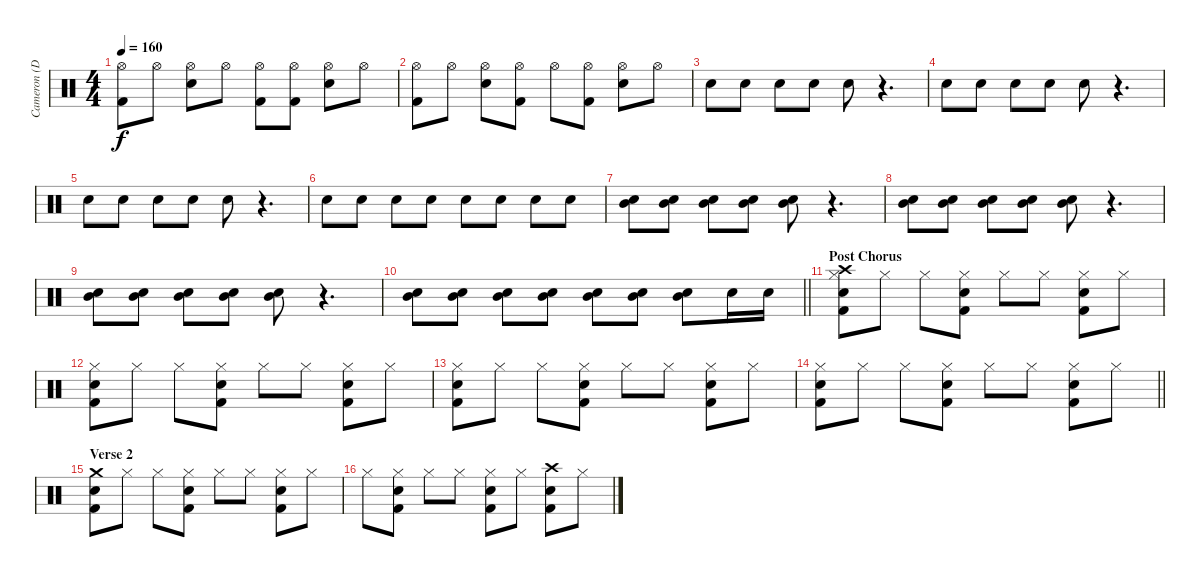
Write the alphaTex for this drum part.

\track ("Cameron (Drums)" "Cameron (D") {instrument percussion}
\staff {score}
\articulation defaults
\ts (4 4)
\tempo 160
\clef neutral
\ks c
("Hi-Hat (open)" "Kick (hit) 2").8{dy f} "Hi-Hat (open)".8 ("Hi-Hat (open)" "Snare (hit) 2").8 "Hi-Hat (open)".8 ("Hi-Hat (open)" "Kick (hit) 2").8 ("Hi-Hat (open)" "Kick (hit) 2").8 ("Hi-Hat (open)" "Snare (hit) 2").8 "Hi-Hat (open)".8 |
("Hi-Hat (open)" "Kick (hit) 2").8 "Hi-Hat (open)".8 ("Hi-Hat (open)" "Snare (hit) 2").8 ("Hi-Hat (open)" "Kick (hit) 2").8 "Hi-Hat (open)".8 ("Hi-Hat (open)" "Kick (hit) 2").8 ("Hi-Hat (open)" "Snare (hit) 2").8 "Hi-Hat (open)".8 |
"Snare (hit) 2".8 "Snare (hit) 2".8 "Snare (hit) 2".8 "Snare (hit) 2".8 "Snare (hit) 2".8 r.4{d} |
"Snare (hit) 2".8 "Snare (hit) 2".8 "Snare (hit) 2".8 "Snare (hit) 2".8 "Snare (hit) 2".8 r.4{d} |
"Snare (hit) 2".8 "Snare (hit) 2".8 "Snare (hit) 2".8 "Snare (hit) 2".8 "Snare (hit) 2".8 r.4{d} |
"Snare (hit) 2".8 "Snare (hit) 2".8 "Snare (hit) 2".8 "Snare (hit) 2".8 "Snare (hit) 2".8 "Snare (hit) 2".8 "Snare (hit) 2".8 "Snare (hit) 2".8 |
("Snare (hit) 2" "Mid Tom (hit)").8 ("Snare (hit) 2" "Mid Tom (hit)").8 ("Snare (hit) 2" "Mid Tom (hit)").8 ("Snare (hit) 2" "Mid Tom (hit)").8 ("Snare (hit) 2" "Mid Tom (hit)").8 r.4{d} |
("Snare (hit) 2" "Mid Tom (hit)").8 ("Snare (hit) 2" "Mid Tom (hit)").8 ("Snare (hit) 2" "Mid Tom (hit)").8 ("Snare (hit) 2" "Mid Tom (hit)").8 ("Snare (hit) 2" "Mid Tom (hit)").8 r.4{d} |
("Snare (hit) 2" "Mid Tom (hit)").8 ("Snare (hit) 2" "Mid Tom (hit)").8 ("Snare (hit) 2" "Mid Tom (hit)").8 ("Snare (hit) 2" "Mid Tom (hit)").8 ("Snare (hit) 2" "Mid Tom (hit)").8 r.4{d} |
\barLineRight lightlight
("Snare (hit) 2" "Mid Tom (hit)").8 ("Snare (hit) 2" "Mid Tom (hit)").8 ("Snare (hit) 2" "Mid Tom (hit)").8 ("Snare (hit) 2" "Mid Tom (hit)").8 ("Snare (hit) 2" "Mid Tom (hit)").8 ("Snare (hit) 2" "Mid Tom (hit)").8 ("Snare (hit) 2" "Mid Tom (hit)").8 "Snare (hit) 2".16 "Snare (hit) 2".16 |
\section ("" "Post Chorus")
("Crash high (hit)" "Hi-Hat (closed)" "Snare (hit) 2" "Kick (hit) 2").8 "Hi-Hat (closed)".8 "Hi-Hat (closed)".8 ("Hi-Hat (closed)" "Snare (hit) 2" "Kick (hit) 2").8 "Hi-Hat (closed)".8 "Hi-Hat (closed)".8 ("Hi-Hat (closed)" "Snare (hit) 2" "Kick (hit) 2").8 "Hi-Hat (closed)".8 |
("Hi-Hat (closed)" "Snare (hit) 2" "Kick (hit) 2").8 "Hi-Hat (closed)".8 "Hi-Hat (closed)".8 ("Hi-Hat (closed)" "Snare (hit) 2" "Kick (hit) 2").8 "Hi-Hat (closed)".8 "Hi-Hat (closed)".8 ("Hi-Hat (closed)" "Snare (hit) 2" "Kick (hit) 2").8 "Hi-Hat (closed)".8 |
("Hi-Hat (closed)" "Snare (hit) 2" "Kick (hit) 2").8 "Hi-Hat (closed)".8 "Hi-Hat (closed)".8 ("Hi-Hat (closed)" "Snare (hit) 2" "Kick (hit) 2").8 "Hi-Hat (closed)".8 "Hi-Hat (closed)".8 ("Hi-Hat (closed)" "Snare (hit) 2" "Kick (hit) 2").8 "Hi-Hat (closed)".8 |
\barLineRight lightlight
("Hi-Hat (closed)" "Snare (hit) 2" "Kick (hit) 2").8 "Hi-Hat (closed)".8 "Hi-Hat (closed)".8 ("Hi-Hat (closed)" "Snare (hit) 2" "Kick (hit) 2").8 "Hi-Hat (closed)".8 "Hi-Hat (closed)".8 ("Hi-Hat (closed)" "Snare (hit) 2" "Kick (hit) 2").8 "Hi-Hat (closed)".8 |
\section ("" "Verse 2")
("Crash medium (hit)" "Snare (hit) 2" "Kick (hit) 2").8 "Hi-Hat (closed)".8 "Hi-Hat (closed)".8 ("Hi-Hat (closed)" "Snare (hit) 2" "Kick (hit) 2").8 "Hi-Hat (closed)".8 "Hi-Hat (closed)".8 ("Hi-Hat (closed)" "Snare (hit) 2" "Kick (hit) 2").8 "Hi-Hat (closed)".8 |
"Hi-Hat (closed)".8 ("Hi-Hat (closed)" "Snare (hit) 2" "Kick (hit) 2").8 "Hi-Hat (closed)".8 "Hi-Hat (closed)".8 ("Hi-Hat (closed)" "Snare (hit) 2" "Kick (hit) 2").8 "Hi-Hat (closed)".8 ("Crash high (hit)" "Snare (hit) 2" "Kick (hit) 2").8 "Hi-Hat (closed)".8
